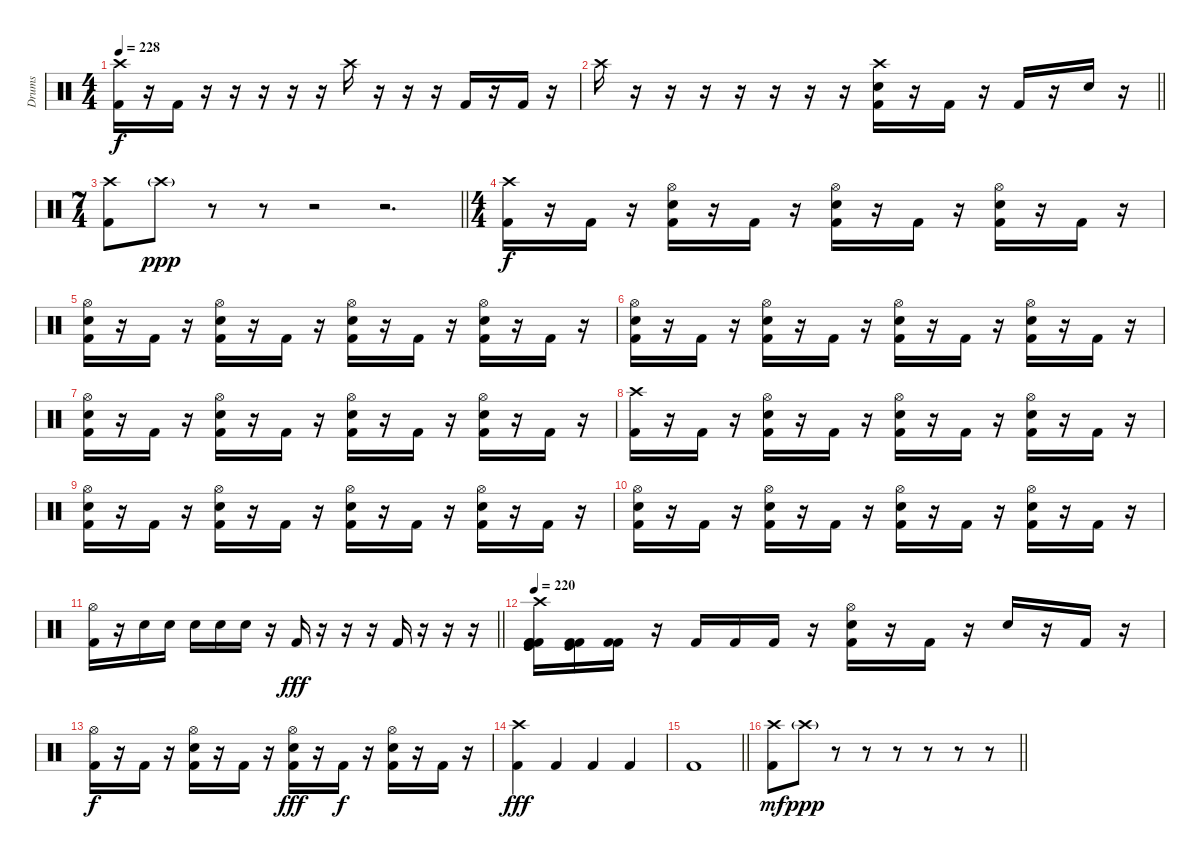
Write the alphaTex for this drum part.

\track ("Drums" "Drums") {instrument percussion}
\staff {score}
\articulation defaults
\ts (4 4)
\tempo 228
\clef neutral
\ks c
("Crash high (hit)" "Kick (hit) 2").16{dy f} r.16 "Kick (hit) 2".16 r.16 r.16 r.16 r.16 r.16 "Crash high (hit)".16 r.16 r.16 r.16 "Kick (hit) 2".16 r.16 "Kick (hit) 2".16 r.16 |
\barLineRight lightlight "Crash high (hit)".16
r.16 r.16 r.16 r.16 r.16 r.16 r.16 ("Crash high (hit)" "Snare (hit) 2" "Kick (hit) 2").16 r.16 "Kick (hit) 2".16 r.16 "Kick (hit) 2".16 r.16 "Snare (hit) 2".16 r.16 |
\ts (7 4)
\barLineRight lightlight
("Crash high (hit)" "Kick (hit) 2").8 "Crash high (hit)"{g}.8{dy ppp} r.8 r.8 r.2 r.2{d} |
\ts (4 4)
("Crash high (hit)" "Kick (hit) 2").16{dy f} r.16 "Kick (hit) 2".16 r.16 ("Hi-Hat (open)" "Snare (hit) 2" "Kick (hit) 2").16 r.16 "Kick (hit) 2".16 r.16 ("Hi-Hat (open)" "Snare (hit) 2" "Kick (hit) 2").16 r.16 "Kick (hit) 2".16 r.16 ("Hi-Hat (open)" "Snare (hit) 2" "Kick (hit) 2").16 r.16 "Kick (hit) 2".16 r.16 |
("Hi-Hat (open)" "Snare (hit) 2" "Kick (hit) 2").16 r.16 "Kick (hit) 2".16 r.16 ("Hi-Hat (open)" "Snare (hit) 2" "Kick (hit) 2").16 r.16 "Kick (hit) 2".16 r.16 ("Hi-Hat (open)" "Snare (hit) 2" "Kick (hit) 2").16 r.16 "Kick (hit) 2".16 r.16 ("Hi-Hat (open)" "Snare (hit) 2" "Kick (hit) 2").16 r.16 "Kick (hit) 2".16 r.16 |
("Hi-Hat (open)" "Snare (hit) 2" "Kick (hit) 2").16 r.16 "Kick (hit) 2".16 r.16 ("Hi-Hat (open)" "Snare (hit) 2" "Kick (hit) 2").16 r.16 "Kick (hit) 2".16 r.16 ("Hi-Hat (open)" "Snare (hit) 2" "Kick (hit) 2").16 r.16 "Kick (hit) 2".16 r.16 ("Hi-Hat (open)" "Snare (hit) 2" "Kick (hit) 2").16 r.16 "Kick (hit) 2".16 r.16 |
("Hi-Hat (open)" "Snare (hit) 2" "Kick (hit) 2").16 r.16 "Kick (hit) 2".16 r.16 ("Hi-Hat (open)" "Snare (hit) 2" "Kick (hit) 2").16 r.16 "Kick (hit) 2".16 r.16 ("Hi-Hat (open)" "Snare (hit) 2" "Kick (hit) 2").16 r.16 "Kick (hit) 2".16 r.16 ("Hi-Hat (open)" "Snare (hit) 2" "Kick (hit) 2").16 r.16 "Kick (hit) 2".16 r.16 |
("Crash high (hit)" "Kick (hit) 2").16 r.16 "Kick (hit) 2".16 r.16 ("Hi-Hat (open)" "Snare (hit) 2" "Kick (hit) 2").16 r.16 "Kick (hit) 2".16 r.16 ("Hi-Hat (open)" "Snare (hit) 2" "Kick (hit) 2").16 r.16 "Kick (hit) 2".16 r.16 ("Hi-Hat (open)" "Snare (hit) 2" "Kick (hit) 2").16 r.16 "Kick (hit) 2".16 r.16 |
("Hi-Hat (open)" "Snare (hit) 2" "Kick (hit) 2").16 r.16 "Kick (hit) 2".16 r.16 ("Hi-Hat (open)" "Snare (hit) 2" "Kick (hit) 2").16 r.16 "Kick (hit) 2".16 r.16 ("Hi-Hat (open)" "Snare (hit) 2" "Kick (hit) 2").16 r.16 "Kick (hit) 2".16 r.16 ("Hi-Hat (open)" "Snare (hit) 2" "Kick (hit) 2").16 r.16 "Kick (hit) 2".16 r.16 |
("Hi-Hat (open)" "Snare (hit) 2" "Kick (hit) 2").16 r.16 "Kick (hit) 2".16 r.16 ("Hi-Hat (open)" "Snare (hit) 2" "Kick (hit) 2").16 r.16 "Kick (hit) 2".16 r.16 ("Hi-Hat (open)" "Snare (hit) 2" "Kick (hit) 2").16 r.16 "Kick (hit) 2".16 r.16 ("Hi-Hat (open)" "Snare (hit) 2" "Kick (hit) 2").16 r.16 "Kick (hit) 2".16 r.16 |
\barLineRight lightlight
("Hi-Hat (open)" "Kick (hit) 2").16 r.16 "Snare (hit) 2".16 "Snare (hit) 2".16 "Snare (hit) 2".16 "Snare (hit) 2".16 "Snare (hit) 2".16 r.16 "Kick (hit) 2".16{dy fff} r.16 r.16 r.16 "Kick (hit) 2".16 r.16 r.16 r.16 |
\tempo 220
("Crash high (hit)" "Kick (hit)" "Kick (hit)" "Kick (hit) 2" "Kick (hit) 2" "Kick (hit) 2").16 ("Kick (hit)" "Kick (hit) 2" "Kick (hit) 2").16 ("Kick (hit) 2" "Kick (hit) 2").16 r.16 "Kick (hit) 2".16 "Kick (hit) 2".16 "Kick (hit) 2".16 r.16 ("Hi-Hat (open)" "Snare (hit) 2" "Kick (hit) 2").16 r.16 "Kick (hit) 2".16 r.16 "Snare (hit) 2".16 r.16 "Kick (hit) 2".16 r.16 |
("Hi-Hat (open)" "Kick (hit) 2").16{dy f} r.16 "Kick (hit) 2".16 r.16 ("Hi-Hat (open)" "Snare (hit) 2" "Kick (hit) 2").16 r.16 "Kick (hit) 2".16 r.16 ("Hi-Hat (open)" "Snare (hit) 2" "Kick (hit) 2").16{dy fff} r.16 "Kick (hit) 2".16{dy f} r.16 ("Hi-Hat (open)" "Snare (hit) 2" "Kick (hit) 2").16 r.16 "Kick (hit) 2".16 r.16 |
("Crash high (hit)" "Kick (hit) 2").4{dy fff} "Kick (hit) 2".4 "Kick (hit) 2".4 "Kick (hit) 2".4 |
\barLineRight lightlight "Kick (hit) 2".1
|
\barLineRight lightlight
("Crash high (hit)" "Kick (hit) 2").8{dy mf} "Crash high (hit)"{g}.8{dy ppp} r.8 r.8 r.8 r.8 r.8 r.8
